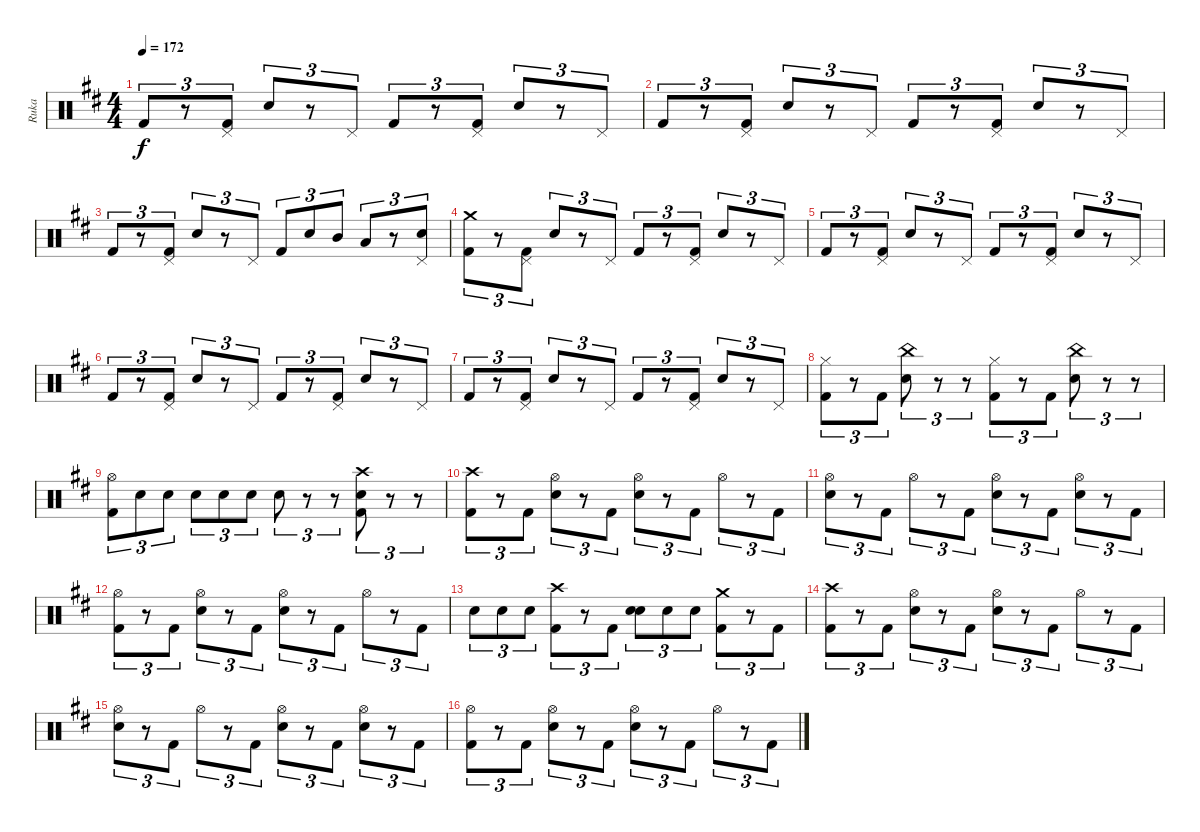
\track ("Ruka" "Ruka") {instrument percussion}
\staff {score}
\articulation defaults
\ts (4 4)
\tempo 172
\clef neutral
\ks bminor "Kick (hit) 2".8{tu (3 2) dy f}
r.8{tu (3 2)} ("Kick (hit) 2" "Pedal Hi-Hat (hit)").8{tu (3 2)} "Electric Snare (hit)".8{tu (3 2)} r.8{tu (3 2)} "Pedal Hi-Hat (hit)".8{tu (3 2)} "Kick (hit) 2".8{tu (3 2)} r.8{tu (3 2)} ("Kick (hit) 2" "Pedal Hi-Hat (hit)").8{tu (3 2)} "Electric Snare (hit)".8{tu (3 2)} r.8{tu (3 2)} "Pedal Hi-Hat (hit)".8{tu (3 2)} |
"Kick (hit) 2".8{tu (3 2)} r.8{tu (3 2)} ("Kick (hit) 2" "Pedal Hi-Hat (hit)").8{tu (3 2)} "Electric Snare (hit)".8{tu (3 2)} r.8{tu (3 2)} "Pedal Hi-Hat (hit)".8{tu (3 2)} "Kick (hit) 2".8{tu (3 2)} r.8{tu (3 2)} ("Kick (hit) 2" "Pedal Hi-Hat (hit)").8{tu (3 2)} "Electric Snare (hit)".8{tu (3 2)} r.8{tu (3 2)} "Pedal Hi-Hat (hit)".8{tu (3 2)} |
"Kick (hit) 2".8{tu (3 2)} r.8{tu (3 2)} ("Kick (hit) 2" "Pedal Hi-Hat (hit)").8{tu (3 2)} "Electric Snare (hit)".8{tu (3 2)} r.8{tu (3 2)} "Pedal Hi-Hat (hit)".8{tu (3 2)} "Kick (hit) 2".8{tu (3 2)} "Electric Snare (hit)".8{tu (3 2)} "Mid Tom (hit)".8{tu (3 2)} "Low Tom (hit)".8{tu (3 2)} r.8{tu (3 2)} ("Electric Snare (hit)" "Pedal Hi-Hat (hit)").8{tu (3 2)} |
("Kick (hit) 2" "Crash medium (hit)").8{tu (3 2)} r.8{tu (3 2)} ("Kick (hit) 2" "Pedal Hi-Hat (hit)").8{tu (3 2)} "Electric Snare (hit)".8{tu (3 2)} r.8{tu (3 2)} "Pedal Hi-Hat (hit)".8{tu (3 2)} "Kick (hit) 2".8{tu (3 2)} r.8{tu (3 2)} ("Kick (hit) 2" "Pedal Hi-Hat (hit)").8{tu (3 2)} "Electric Snare (hit)".8{tu (3 2)} r.8{tu (3 2)} "Pedal Hi-Hat (hit)".8{tu (3 2)} |
"Kick (hit) 2".8{tu (3 2)} r.8{tu (3 2)} ("Kick (hit) 2" "Pedal Hi-Hat (hit)").8{tu (3 2)} "Electric Snare (hit)".8{tu (3 2)} r.8{tu (3 2)} "Pedal Hi-Hat (hit)".8{tu (3 2)} "Kick (hit) 2".8{tu (3 2)} r.8{tu (3 2)} ("Kick (hit) 2" "Pedal Hi-Hat (hit)").8{tu (3 2)} "Electric Snare (hit)".8{tu (3 2)} r.8{tu (3 2)} "Pedal Hi-Hat (hit)".8{tu (3 2)} |
"Kick (hit) 2".8{tu (3 2)} r.8{tu (3 2)} ("Kick (hit) 2" "Pedal Hi-Hat (hit)").8{tu (3 2)} "Electric Snare (hit)".8{tu (3 2)} r.8{tu (3 2)} "Pedal Hi-Hat (hit)".8{tu (3 2)} "Kick (hit) 2".8{tu (3 2)} r.8{tu (3 2)} ("Kick (hit) 2" "Pedal Hi-Hat (hit)").8{tu (3 2)} "Electric Snare (hit)".8{tu (3 2)} r.8{tu (3 2)} "Pedal Hi-Hat (hit)".8{tu (3 2)} |
"Kick (hit) 2".8{tu (3 2)} r.8{tu (3 2)} ("Kick (hit) 2" "Pedal Hi-Hat (hit)").8{tu (3 2)} "Electric Snare (hit)".8{tu (3 2)} r.8{tu (3 2)} "Pedal Hi-Hat (hit)".8{tu (3 2)} "Kick (hit) 2".8{tu (3 2)} r.8{tu (3 2)} ("Kick (hit) 2" "Pedal Hi-Hat (hit)").8{tu (3 2)} "Electric Snare (hit)".8{tu (3 2)} r.8{tu (3 2)} "Pedal Hi-Hat (hit)".8{tu (3 2)} |
("Kick (hit) 2" "Hi-Hat (closed)").8{tu (3 2)} r.8{tu (3 2)} "Kick (hit) 2".8{tu (3 2)} ("Electric Snare (hit)" "China (hit)").8{tu (3 2)} r.8{tu (3 2)} r.8{tu (3 2)} ("Kick (hit) 2" "Hi-Hat (closed)").8{tu (3 2)} r.8{tu (3 2)} "Kick (hit) 2".8{tu (3 2)} ("Electric Snare (hit)" "China (hit)").8{tu (3 2)} r.8{tu (3 2)} r.8{tu (3 2)} |
("Kick (hit) 2" "Hi-Hat (open)").8{tu (3 2)} "Electric Snare (hit)".8{tu (3 2)} "Electric Snare (hit)".8{tu (3 2)} "Electric Snare (hit)".8{tu (3 2)} "Electric Snare (hit)".8{tu (3 2)} "Electric Snare (hit)".8{tu (3 2)} "Electric Snare (hit)".8{tu (3 2)} r.8{tu (3 2)} r.8{tu (3 2)} ("Kick (hit) 2" "Electric Snare (hit)" "Crash high (hit)").8{tu (3 2)} r.8{tu (3 2)} r.8{tu (3 2)} |
("Crash high (hit)" "Kick (hit) 2").8{tu (3 2)} r.8{tu (3 2)} "Kick (hit) 2".8{tu (3 2)} ("Hi-Hat (open)" "Electric Snare (hit)").8{tu (3 2)} r.8{tu (3 2)} "Kick (hit) 2".8{tu (3 2)} ("Hi-Hat (open)" "Electric Snare (hit)").8{tu (3 2)} r.8{tu (3 2)} "Kick (hit) 2".8{tu (3 2)} "Hi-Hat (open)".8{tu (3 2)} r.8{tu (3 2)} "Kick (hit) 2".8{tu (3 2)} |
("Hi-Hat (open)" "Electric Snare (hit)").8{tu (3 2)} r.8{tu (3 2)} "Kick (hit) 2".8{tu (3 2)} "Hi-Hat (open)".8{tu (3 2)} r.8{tu (3 2)} "Kick (hit) 2".8{tu (3 2)} ("Hi-Hat (open)" "Electric Snare (hit)").8{tu (3 2)} r.8{tu (3 2)} "Kick (hit) 2".8{tu (3 2)} ("Hi-Hat (open)" "Electric Snare (hit)").8{tu (3 2)} r.8{tu (3 2)} "Kick (hit) 2".8{tu (3 2)} |
("Hi-Hat (open)" "Kick (hit) 2").8{tu (3 2)} r.8{tu (3 2)} "Kick (hit) 2".8{tu (3 2)} ("Hi-Hat (open)" "Electric Snare (hit)").8{tu (3 2)} r.8{tu (3 2)} "Kick (hit) 2".8{tu (3 2)} ("Hi-Hat (open)" "Electric Snare (hit)").8{tu (3 2)} r.8{tu (3 2)} "Kick (hit) 2".8{tu (3 2)} "Hi-Hat (open)".8{tu (3 2)} r.8{tu (3 2)} "Kick (hit) 2".8{tu (3 2)} |
"Electric Snare (hit)".8{tu (3 2)} "Electric Snare (hit)".8{tu (3 2)} "Electric Snare (hit)".8{tu (3 2)} ("Kick (hit) 2" "Crash high (hit)").8{tu (3 2)} r.8{tu (3 2)} "Kick (hit) 2".8{tu (3 2)} ("Electric Snare (hit)" "Electric Snare (hit)").8{tu (3 2) bd 120} "Electric Snare (hit)".8{tu (3 2)} "Electric Snare (hit)".8{tu (3 2)} ("Kick (hit) 2" "Crash medium (hit)").8{tu (3 2)} r.8{tu (3 2)} "Kick (hit) 2".8{tu (3 2)} |
("Crash high (hit)" "Kick (hit) 2").8{tu (3 2)} r.8{tu (3 2)} "Kick (hit) 2".8{tu (3 2)} ("Hi-Hat (open)" "Electric Snare (hit)").8{tu (3 2)} r.8{tu (3 2)} "Kick (hit) 2".8{tu (3 2)} ("Hi-Hat (open)" "Electric Snare (hit)").8{tu (3 2)} r.8{tu (3 2)} "Kick (hit) 2".8{tu (3 2)} "Hi-Hat (open)".8{tu (3 2)} r.8{tu (3 2)} "Kick (hit) 2".8{tu (3 2)} |
("Hi-Hat (open)" "Electric Snare (hit)").8{tu (3 2)} r.8{tu (3 2)} "Kick (hit) 2".8{tu (3 2)} "Hi-Hat (open)".8{tu (3 2)} r.8{tu (3 2)} "Kick (hit) 2".8{tu (3 2)} ("Hi-Hat (open)" "Electric Snare (hit)").8{tu (3 2)} r.8{tu (3 2)} "Kick (hit) 2".8{tu (3 2)} ("Hi-Hat (open)" "Electric Snare (hit)").8{tu (3 2)} r.8{tu (3 2)} "Kick (hit) 2".8{tu (3 2)} |
("Hi-Hat (open)" "Kick (hit) 2").8{tu (3 2)} r.8{tu (3 2)} "Kick (hit) 2".8{tu (3 2)} ("Hi-Hat (open)" "Electric Snare (hit)").8{tu (3 2)} r.8{tu (3 2)} "Kick (hit) 2".8{tu (3 2)} ("Hi-Hat (open)" "Electric Snare (hit)").8{tu (3 2)} r.8{tu (3 2)} "Kick (hit) 2".8{tu (3 2)} "Hi-Hat (open)".8{tu (3 2)} r.8{tu (3 2)} "Kick (hit) 2".8{tu (3 2)}
